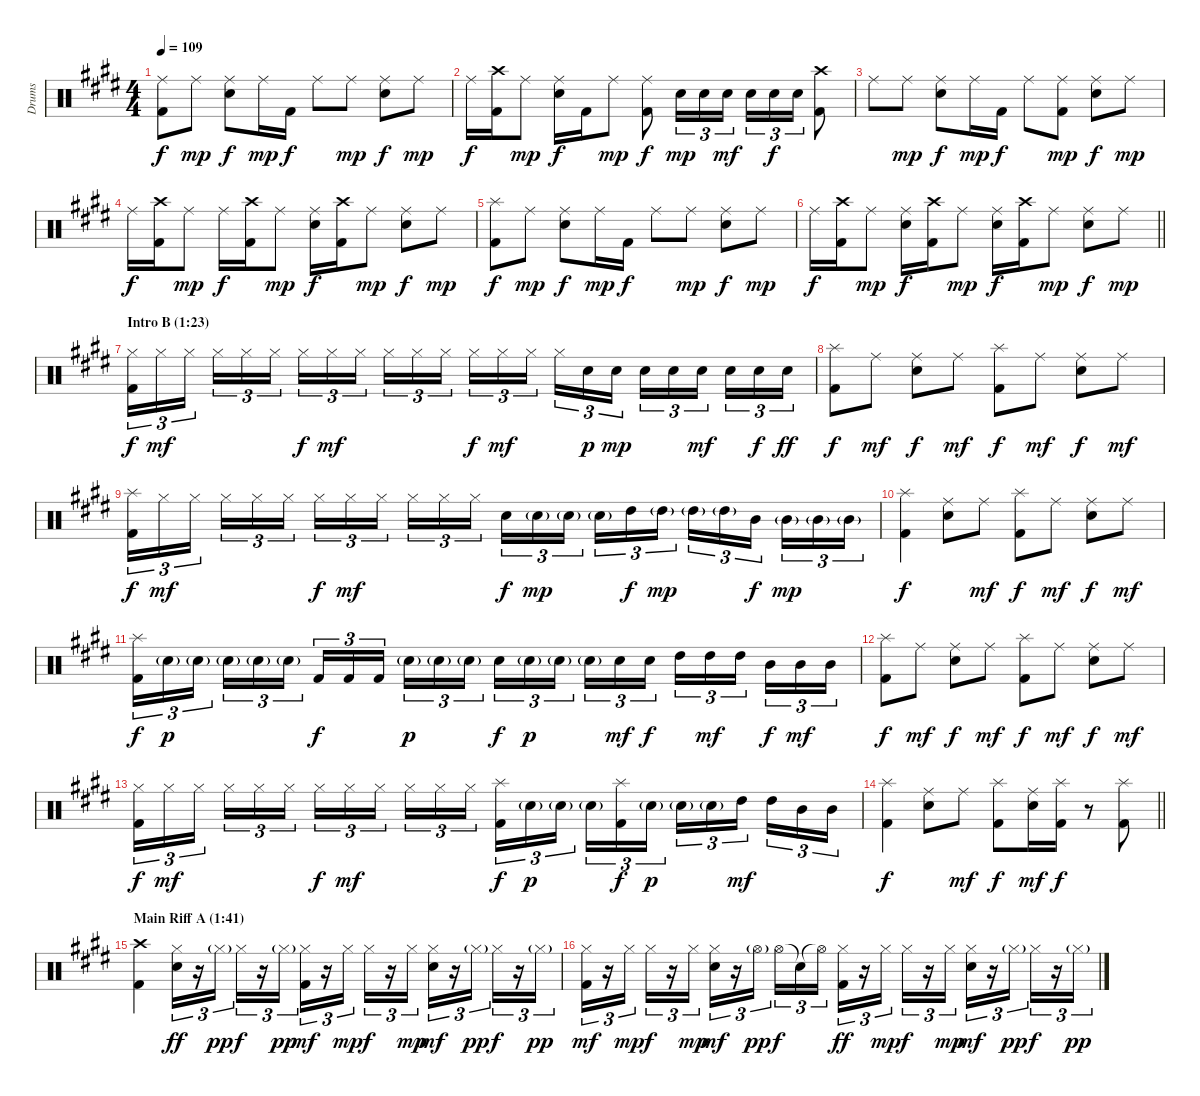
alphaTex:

\track ("Drums" "Drums") {instrument percussion}
\staff {score}
\articulation defaults
\ts (4 4)
\tempo 109
\clef neutral
\ks e
("Ride (middle)" "Kick (hit) 2").8{dy f} "Ride (middle)".8{dy mp} ("Ride (middle)" "Electric Snare (hit)").8{dy f} "Ride (middle)".16{dy mp} "Kick (hit) 2".16{dy f} "Ride (middle)".8 "Ride (middle)".8{dy mp} ("Ride (middle)" "Electric Snare (hit)").8{dy f} "Ride (middle)".8{dy mp} |
"Ride (middle)".16{dy f} ("Crash high (hit)" "Kick (hit) 2").16 "Ride (middle)".8{dy mp} ("Ride (middle)" "Electric Snare (hit)").16{dy f} "Kick (hit) 2".16 "Ride (middle)".8{dy mp} ("Ride (middle)" "Kick (hit) 2").8{dy f} "Electric Snare (hit)".16{tu (3 2) dy mp} "Electric Snare (hit)".16{tu (3 2)} "Electric Snare (hit)".16{tu (3 2) dy mf} "Electric Snare (hit)".16{tu (3 2)} "Electric Snare (hit)".16{tu (3 2) dy f} "Electric Snare (hit)".16{tu (3 2)} ("Crash high (hit)" "Kick (hit) 2").8 |
"Ride (middle)".8 "Ride (middle)".8{dy mp} ("Ride (middle)" "Electric Snare (hit)").8{dy f} "Ride (middle)".16{dy mp} "Kick (hit) 2".16{dy f} "Ride (middle)".8 ("Ride (middle)" "Kick (hit) 2").8{dy mp} ("Ride (middle)" "Electric Snare (hit)").8{dy f} "Ride (middle)".8{dy mp} |
"Ride (middle)".16{dy f} ("Crash high (hit)" "Kick (hit) 2").16 "Ride (middle)".8{dy mp} "Ride (middle)".16{dy f} ("Crash high (hit)" "Kick (hit) 2").16 "Ride (middle)".8{dy mp} ("Ride (middle)" "Electric Snare (hit)").16{dy f} ("Crash high (hit)" "Kick (hit) 2").16 "Ride (middle)".8{dy mp} ("Ride (middle)" "Electric Snare (hit)").8{dy f} "Ride (middle)".8{dy mp} |
("Splash (hit)" "Kick (hit) 2").8{dy f} "Ride (middle)".8{dy mp} ("Ride (middle)" "Electric Snare (hit)").8{dy f} "Ride (middle)".16{dy mp} "Kick (hit) 2".16{dy f} "Ride (middle)".8 "Ride (middle)".8{dy mp} ("Ride (middle)" "Electric Snare (hit)").8{dy f} "Ride (middle)".8{dy mp} |
\barLineRight lightlight "Ride (middle)".16{dy f}
("Crash high (hit)" "Kick (hit) 2").16 "Ride (middle)".8{dy mp} ("Ride (middle)" "Electric Snare (hit)").16{dy f} ("Crash high (hit)" "Kick (hit) 2").16 "Ride (middle)".8{dy mp} ("Ride (middle)" "Electric Snare (hit)").16{dy f} ("Crash high (hit)" "Kick (hit) 2").16 "Ride (middle)".8{dy mp} ("Ride (middle)" "Electric Snare (hit)").8{dy f} "Ride (middle)".8{dy mp} |
\section ("" "Intro B (1:23)")
("Hi-Hat (closed)" "Kick (hit) 2").16{tu (3 2) dy f} "Hi-Hat (closed)".16{tu (3 2) dy mf} "Hi-Hat (closed)".16{tu (3 2) beam splitsecondary} "Hi-Hat (closed)".16{tu (3 2)} "Hi-Hat (closed)".16{tu (3 2)} "Hi-Hat (closed)".16{tu (3 2)} "Hi-Hat (closed)".16{tu (3 2) dy f} "Hi-Hat (closed)".16{tu (3 2) dy mf} "Hi-Hat (closed)".16{tu (3 2) beam splitsecondary} "Hi-Hat (closed)".16{tu (3 2)} "Hi-Hat (closed)".16{tu (3 2)} "Hi-Hat (closed)".16{tu (3 2)} "Hi-Hat (closed)".16{tu (3 2) dy f} "Hi-Hat (closed)".16{tu (3 2) dy mf} "Hi-Hat (closed)".16{tu (3 2) beam splitsecondary} "Hi-Hat (closed)".16{tu (3 2)} "Electric Snare (hit)".16{tu (3 2) dy p} "Electric Snare (hit)".16{tu (3 2) dy mp} "Electric Snare (hit)".16{tu (3 2)} "Electric Snare (hit)".16{tu (3 2)} "Electric Snare (hit)".16{tu (3 2) dy mf beam splitsecondary} "Electric Snare (hit)".16{tu (3 2)} "Electric Snare (hit)".16{tu (3 2) dy f} "Electric Snare (hit)".16{tu (3 2) dy ff} |
("Splash (hit)" "Kick (hit) 2").8{dy f} "Ride (middle)".8{dy mf} ("Ride (middle)" "Electric Snare (hit)").8{dy f} "Ride (middle)".8{dy mf} ("Splash (hit)" "Kick (hit) 2").8{dy f} "Ride (middle)".8{dy mf} ("Ride (middle)" "Electric Snare (hit)").8{dy f} "Ride (middle)".8{dy mf} |
("Splash (hit)" "Kick (hit) 2").16{tu (3 2) dy f} "Hi-Hat (closed)".16{tu (3 2) dy mf} "Hi-Hat (closed)".16{tu (3 2) beam splitsecondary} "Hi-Hat (closed)".16{tu (3 2)} "Hi-Hat (closed)".16{tu (3 2)} "Hi-Hat (closed)".16{tu (3 2)} "Hi-Hat (closed)".16{tu (3 2) dy f} "Hi-Hat (closed)".16{tu (3 2) dy mf} "Hi-Hat (closed)".16{tu (3 2) beam splitsecondary} "Hi-Hat (closed)".16{tu (3 2)} "Hi-Hat (closed)".16{tu (3 2)} "Hi-Hat (closed)".16{tu (3 2)} "Electric Snare (hit)".16{tu (3 2) dy f} "Electric Snare (hit)"{g}.16{tu (3 2) dy mp} "Electric Snare (hit)"{g}.16{tu (3 2) beam splitsecondary} "Electric Snare (hit)"{g}.16{tu (3 2)} "High Tom (hit)".16{tu (3 2) dy f} "High Tom (hit)"{g}.16{tu (3 2) dy mp} "High Tom (hit)"{g}.16{tu (3 2)} "High Tom (hit)"{g}.16{tu (3 2)} "Mid Tom (hit)".16{tu (3 2) dy f beam splitsecondary} "Mid Tom (hit)"{g}.16{tu (3 2) dy mp} "Mid Tom (hit)"{g}.16{tu (3 2)} "Mid Tom (hit)"{g}.16{tu (3 2)} |
("Splash (hit)" "Kick (hit) 2").4{dy f} ("Ride (middle)" "Electric Snare (hit)").8 "Ride (middle)".8{dy mf} ("Splash (hit)" "Kick (hit) 2").8{dy f} "Ride (middle)".8{dy mf} ("Ride (middle)" "Electric Snare (hit)").8{dy f} "Ride (middle)".8{dy mf} |
("Splash (hit)" "Kick (hit) 2").16{tu (3 2) dy f} "Electric Snare (hit)"{g}.16{tu (3 2) dy p} "Electric Snare (hit)"{g}.16{tu (3 2) beam splitsecondary} "Electric Snare (hit)"{g}.16{tu (3 2)} "Electric Snare (hit)"{g}.16{tu (3 2)} "Electric Snare (hit)"{g}.16{tu (3 2)} "Kick (hit) 2".16{tu (3 2) dy f} "Kick (hit) 2".16{tu (3 2)} "Kick (hit) 2".16{tu (3 2) beam splitsecondary} "Electric Snare (hit)"{g}.16{tu (3 2) dy p} "Electric Snare (hit)"{g}.16{tu (3 2)} "Electric Snare (hit)"{g}.16{tu (3 2)} "Electric Snare (hit)".16{tu (3 2) dy f} "Electric Snare (hit)"{g}.16{tu (3 2) dy p} "Electric Snare (hit)"{g}.16{tu (3 2) beam splitsecondary} "Electric Snare (hit)"{g}.16{tu (3 2)} "Electric Snare (hit)".16{tu (3 2) dy mf} "Electric Snare (hit)".16{tu (3 2) dy f} "High Tom (hit)".16{tu (3 2)} "High Tom (hit)".16{tu (3 2) dy mf} "High Tom (hit)".16{tu (3 2) beam splitsecondary} "Mid Tom (hit)".16{tu (3 2) dy f} "Mid Tom (hit)".16{tu (3 2) dy mf} "Mid Tom (hit)".16{tu (3 2)} |
("Splash (hit)" "Kick (hit) 2").8{dy f} "Ride (middle)".8{dy mf} ("Ride (middle)" "Electric Snare (hit)").8{dy f} "Ride (middle)".8{dy mf} ("Splash (hit)" "Kick (hit) 2").8{dy f} "Ride (middle)".8{dy mf} ("Ride (middle)" "Electric Snare (hit)").8{dy f} "Ride (middle)".8{dy mf} |
("Hi-Hat (closed)" "Kick (hit) 2").16{tu (3 2) dy f} "Hi-Hat (closed)".16{tu (3 2) dy mf} "Hi-Hat (closed)".16{tu (3 2) beam splitsecondary} "Hi-Hat (closed)".16{tu (3 2)} "Hi-Hat (closed)".16{tu (3 2)} "Hi-Hat (closed)".16{tu (3 2)} "Hi-Hat (closed)".16{tu (3 2) dy f} "Hi-Hat (closed)".16{tu (3 2) dy mf} "Hi-Hat (closed)".16{tu (3 2) beam splitsecondary} "Hi-Hat (closed)".16{tu (3 2)} "Hi-Hat (closed)".16{tu (3 2)} "Hi-Hat (closed)".16{tu (3 2)} ("Splash (hit)" "Kick (hit) 2").16{tu (3 2) dy f} "Electric Snare (hit)"{g}.16{tu (3 2) dy p} "Electric Snare (hit)"{g}.16{tu (3 2) beam splitsecondary} "Electric Snare (hit)"{g}.16{tu (3 2)} ("Splash (hit)" "Kick (hit) 2").16{tu (3 2) dy f} "Electric Snare (hit)"{g}.16{tu (3 2) dy p} "Electric Snare (hit)"{g}.16{tu (3 2)} "Electric Snare (hit)"{g}.16{tu (3 2)} "High Tom (hit)".16{tu (3 2) dy mf beam splitsecondary} "High Tom (hit)".16{tu (3 2)} "Mid Tom (hit)".16{tu (3 2)} "Mid Tom (hit)".16{tu (3 2)} |
\barLineRight lightlight
("Splash (hit)" "Kick (hit) 2").4{dy f} ("Ride (middle)" "Electric Snare (hit)").8 "Ride (middle)".8{dy mf} ("Splash (hit)" "Kick (hit) 2").8{dy f} ("Ride (middle)" "Electric Snare (hit)").16{dy mf} ("Splash (hit)" "Kick (hit) 2").16{dy f} r.8 ("Splash (hit)" "Kick (hit) 2").8 |
\section ("" "Main Riff A (1:41)")
("Crash high (hit)" "Kick (hit) 2").4 ("Hi-Hat (closed)" "Electric Snare (hit)").16{tu (3 2) dy ff} r.16{tu (3 2)} "Hi-Hat (closed)"{g}.16{tu (3 2) dy pp} "Hi-Hat (closed)".16{tu (3 2) dy f} r.16{tu (3 2)} "Hi-Hat (closed)"{g}.16{tu (3 2) dy pp} ("Hi-Hat (closed)" "Kick (hit) 2").16{tu (3 2) dy mf} r.16{tu (3 2)} "Hi-Hat (closed)".16{tu (3 2) dy mp} "Hi-Hat (closed)".16{tu (3 2) dy f} r.16{tu (3 2)} "Hi-Hat (closed)".16{tu (3 2) dy mp} ("Hi-Hat (closed)" "Electric Snare (hit)").16{tu (3 2) dy mf} r.16{tu (3 2)} "Hi-Hat (closed)"{g}.16{tu (3 2) dy pp} "Hi-Hat (closed)".16{tu (3 2) dy f} r.16{tu (3 2)} "Hi-Hat (closed)"{g}.16{tu (3 2) dy pp} |
("Hi-Hat (closed)" "Kick (hit) 2").16{tu (3 2) dy mf} r.16{tu (3 2)} "Hi-Hat (closed)".16{tu (3 2) dy mp} "Hi-Hat (closed)".16{tu (3 2) dy f} r.16{tu (3 2)} "Hi-Hat (closed)".16{tu (3 2) dy mp} ("Hi-Hat (closed)" "Electric Snare (hit)").16{tu (3 2) dy mf} r.16{tu (3 2)} "Hi-Hat (open)"{g}.16{tu (3 2) dy pp beam splitsecondary} "Hi-Hat (open)".16{tu (3 2) dy f} "Snare (hit)"{t}.16{tu (3 2)} "Hi-Hat (open)"{t}.16{tu (3 2)} ("Hi-Hat (closed)" "Kick (hit) 2").16{tu (3 2) dy ff} r.16{tu (3 2)} "Hi-Hat (closed)".16{tu (3 2) dy mp} "Hi-Hat (closed)".16{tu (3 2) dy f} r.16{tu (3 2)} "Hi-Hat (closed)".16{tu (3 2) dy mp} ("Hi-Hat (closed)" "Electric Snare (hit)").16{tu (3 2) dy mf} r.16{tu (3 2)} "Hi-Hat (closed)"{g}.16{tu (3 2) dy pp} "Hi-Hat (closed)".16{tu (3 2) dy f} r.16{tu (3 2)} "Hi-Hat (closed)"{g}.16{tu (3 2) dy pp}
